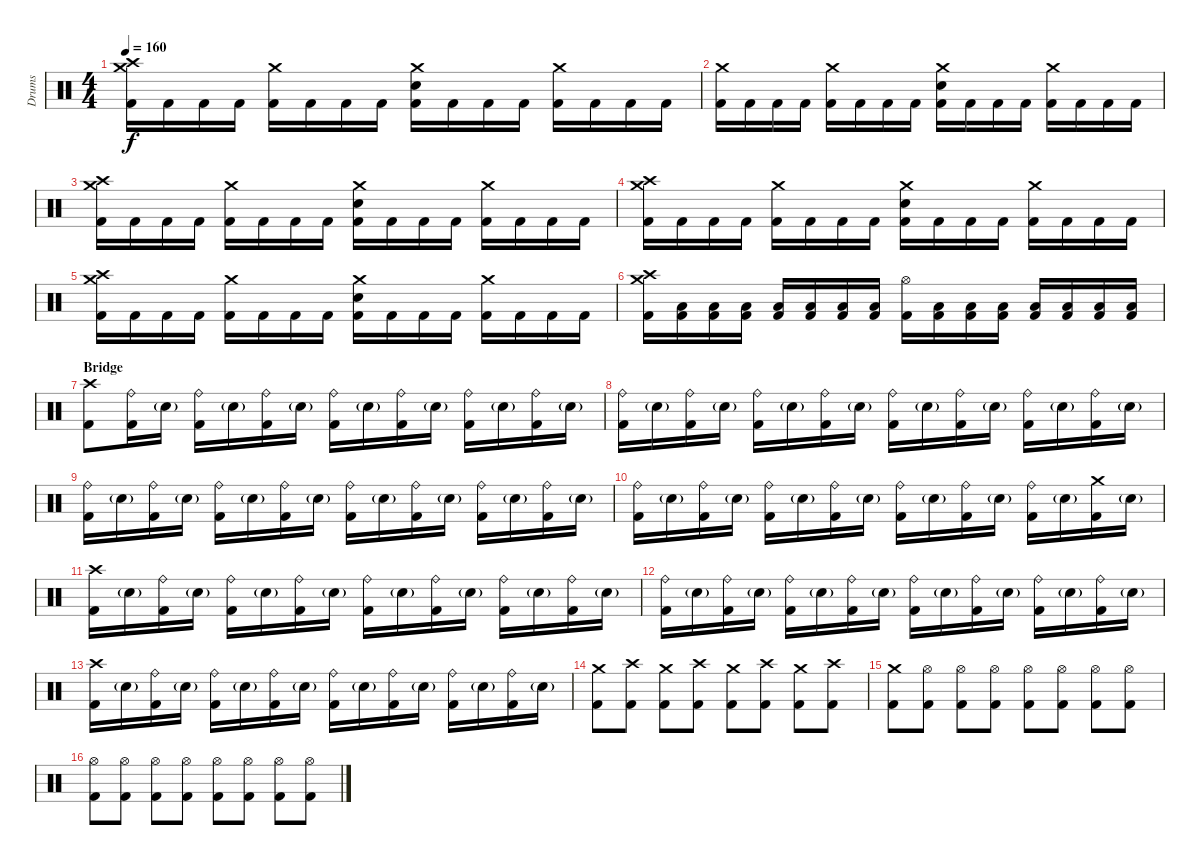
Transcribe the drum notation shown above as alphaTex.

\track ("Drums" "Drums") {instrument percussion}
\staff {score}
\articulation defaults
\ts (4 4)
\tempo 160
\clef neutral
\ks c
("Crash high (hit)" "Crash medium (hit)" "Kick (hit) 2").16{dy f} "Kick (hit) 2".16 "Kick (hit) 2".16 "Kick (hit) 2".16 ("Crash medium (hit)" "Kick (hit) 2").16 "Kick (hit) 2".16 "Kick (hit) 2".16 "Kick (hit) 2".16 ("Crash medium (hit)" "Snare (hit) 2" "Kick (hit) 2").16 "Kick (hit) 2".16 "Kick (hit) 2".16 "Kick (hit) 2".16 ("Crash medium (hit)" "Kick (hit) 2").16 "Kick (hit) 2".16 "Kick (hit) 2".16 "Kick (hit) 2".16 |
("Crash medium (hit)" "Kick (hit) 2").16 "Kick (hit) 2".16 "Kick (hit) 2".16 "Kick (hit) 2".16 ("Crash medium (hit)" "Kick (hit) 2").16 "Kick (hit) 2".16 "Kick (hit) 2".16 "Kick (hit) 2".16 ("Crash medium (hit)" "Snare (hit) 2" "Kick (hit) 2").16 "Kick (hit) 2".16 "Kick (hit) 2".16 "Kick (hit) 2".16 ("Crash medium (hit)" "Kick (hit) 2").16 "Kick (hit) 2".16 "Kick (hit) 2".16 "Kick (hit) 2".16 |
("Crash high (hit)" "Crash medium (hit)" "Kick (hit) 2").16 "Kick (hit) 2".16 "Kick (hit) 2".16 "Kick (hit) 2".16 ("Crash medium (hit)" "Kick (hit) 2").16 "Kick (hit) 2".16 "Kick (hit) 2".16 "Kick (hit) 2".16 ("Crash medium (hit)" "Snare (hit) 2" "Kick (hit) 2").16 "Kick (hit) 2".16 "Kick (hit) 2".16 "Kick (hit) 2".16 ("Crash medium (hit)" "Kick (hit) 2").16 "Kick (hit) 2".16 "Kick (hit) 2".16 "Kick (hit) 2".16 |
("Crash high (hit)" "Crash medium (hit)" "Kick (hit) 2").16 "Kick (hit) 2".16 "Kick (hit) 2".16 "Kick (hit) 2".16 ("Crash medium (hit)" "Kick (hit) 2").16 "Kick (hit) 2".16 "Kick (hit) 2".16 "Kick (hit) 2".16 ("Crash medium (hit)" "Snare (hit) 2" "Kick (hit) 2").16 "Kick (hit) 2".16 "Kick (hit) 2".16 "Kick (hit) 2".16 ("Crash medium (hit)" "Kick (hit) 2").16 "Kick (hit) 2".16 "Kick (hit) 2".16 "Kick (hit) 2".16 |
("Crash high (hit)" "Crash medium (hit)" "Kick (hit) 2").16 "Kick (hit) 2".16 "Kick (hit) 2".16 "Kick (hit) 2".16 ("Crash medium (hit)" "Kick (hit) 2").16 "Kick (hit) 2".16 "Kick (hit) 2".16 "Kick (hit) 2".16 ("Crash medium (hit)" "Snare (hit) 2" "Kick (hit) 2").16 "Kick (hit) 2".16 "Kick (hit) 2".16 "Kick (hit) 2".16 ("Crash medium (hit)" "Kick (hit) 2").16 "Kick (hit) 2".16 "Kick (hit) 2".16 "Kick (hit) 2".16 |
("Crash high (hit)" "Crash medium (hit)" "Kick (hit) 2").16 ("Low Tom (hit)" "Kick (hit) 2").16 ("Low Tom (hit)" "Kick (hit) 2").16 ("Low Tom (hit)" "Kick (hit) 2").16 ("Low Tom (hit)" "Kick (hit) 2").16 ("Low Tom (hit)" "Kick (hit) 2").16 ("Low Tom (hit)" "Kick (hit) 2").16 ("Low Tom (hit)" "Kick (hit) 2").16 ("Hi-Hat (open)" "Kick (hit) 2").16 ("Low Tom (hit)" "Kick (hit) 2").16 ("Low Tom (hit)" "Kick (hit) 2").16 ("Low Tom (hit)" "Kick (hit) 2").16 ("Low Tom (hit)" "Kick (hit) 2").16 ("Low Tom (hit)" "Kick (hit) 2").16 ("Low Tom (hit)" "Kick (hit) 2").16 ("Low Tom (hit)" "Kick (hit) 2").16 |
\section ("" "Bridge")
("Crash high (hit)" "Kick (hit) 2").8 ("Ride (bell)" "Kick (hit) 2").16 "Snare (hit) 2"{g}.16 ("Ride (bell)" "Kick (hit) 2").16 "Snare (hit) 2"{g}.16 ("Ride (bell)" "Kick (hit) 2").16 "Snare (hit) 2"{g}.16 ("Ride (bell)" "Kick (hit) 2").16 "Snare (hit) 2"{g}.16 ("Ride (bell)" "Kick (hit) 2").16 "Snare (hit) 2"{g}.16 ("Ride (bell)" "Kick (hit) 2").16 "Snare (hit) 2"{g}.16 ("Ride (bell)" "Kick (hit) 2").16 "Snare (hit) 2"{g}.16 |
("Ride (bell)" "Kick (hit) 2").16 "Snare (hit) 2"{g}.16 ("Ride (bell)" "Kick (hit) 2").16 "Snare (hit) 2"{g}.16 ("Ride (bell)" "Kick (hit) 2").16 "Snare (hit) 2"{g}.16 ("Ride (bell)" "Kick (hit) 2").16 "Snare (hit) 2"{g}.16 ("Ride (bell)" "Kick (hit) 2").16 "Snare (hit) 2"{g}.16 ("Ride (bell)" "Kick (hit) 2").16 "Snare (hit) 2"{g}.16 ("Ride (bell)" "Kick (hit) 2").16 "Snare (hit) 2"{g}.16 ("Ride (bell)" "Kick (hit) 2").16 "Snare (hit) 2"{g}.16 |
("Ride (bell)" "Kick (hit) 2").16 "Snare (hit) 2"{g}.16 ("Ride (bell)" "Kick (hit) 2").16 "Snare (hit) 2"{g}.16 ("Ride (bell)" "Kick (hit) 2").16 "Snare (hit) 2"{g}.16 ("Ride (bell)" "Kick (hit) 2").16 "Snare (hit) 2"{g}.16 ("Ride (bell)" "Kick (hit) 2").16 "Snare (hit) 2"{g}.16 ("Ride (bell)" "Kick (hit) 2").16 "Snare (hit) 2"{g}.16 ("Ride (bell)" "Kick (hit) 2").16 "Snare (hit) 2"{g}.16 ("Ride (bell)" "Kick (hit) 2").16 "Snare (hit) 2"{g}.16 |
("Ride (bell)" "Kick (hit) 2").16 "Snare (hit) 2"{g}.16 ("Ride (bell)" "Kick (hit) 2").16 "Snare (hit) 2"{g}.16 ("Ride (bell)" "Kick (hit) 2").16 "Snare (hit) 2"{g}.16 ("Ride (bell)" "Kick (hit) 2").16 "Snare (hit) 2"{g}.16 ("Ride (bell)" "Kick (hit) 2").16 "Snare (hit) 2"{g}.16 ("Ride (bell)" "Kick (hit) 2").16 "Snare (hit) 2"{g}.16 ("Ride (bell)" "Kick (hit) 2").16 "Snare (hit) 2"{g}.16 ("Crash medium (hit)" "Kick (hit) 2").16 "Snare (hit) 2"{g}.16 |
("Crash high (hit)" "Kick (hit) 2").16 "Snare (hit) 2"{g}.16 ("Ride (bell)" "Kick (hit) 2").16 "Snare (hit) 2"{g}.16 ("Ride (bell)" "Kick (hit) 2").16 "Snare (hit) 2"{g}.16 ("Ride (bell)" "Kick (hit) 2").16 "Snare (hit) 2"{g}.16 ("Ride (bell)" "Kick (hit) 2").16 "Snare (hit) 2"{g}.16 ("Ride (bell)" "Kick (hit) 2").16 "Snare (hit) 2"{g}.16 ("Ride (bell)" "Kick (hit) 2").16 "Snare (hit) 2"{g}.16 ("Ride (bell)" "Kick (hit) 2").16 "Snare (hit) 2"{g}.16 |
("Ride (bell)" "Kick (hit) 2").16 "Snare (hit) 2"{g}.16 ("Ride (bell)" "Kick (hit) 2").16 "Snare (hit) 2"{g}.16 ("Ride (bell)" "Kick (hit) 2").16 "Snare (hit) 2"{g}.16 ("Ride (bell)" "Kick (hit) 2").16 "Snare (hit) 2"{g}.16 ("Ride (bell)" "Kick (hit) 2").16 "Snare (hit) 2"{g}.16 ("Ride (bell)" "Kick (hit) 2").16 "Snare (hit) 2"{g}.16 ("Ride (bell)" "Kick (hit) 2").16 "Snare (hit) 2"{g}.16 ("Ride (bell)" "Kick (hit) 2").16 "Snare (hit) 2"{g}.16 |
("Crash high (hit)" "Kick (hit) 2").16 "Snare (hit) 2"{g}.16 ("Ride (bell)" "Kick (hit) 2").16 "Snare (hit) 2"{g}.16 ("Ride (bell)" "Kick (hit) 2").16 "Snare (hit) 2"{g}.16 ("Ride (bell)" "Kick (hit) 2").16 "Snare (hit) 2"{g}.16 ("Ride (bell)" "Kick (hit) 2").16 "Snare (hit) 2"{g}.16 ("Ride (bell)" "Kick (hit) 2").16 "Snare (hit) 2"{g}.16 ("Ride (bell)" "Kick (hit) 2").16 "Snare (hit) 2"{g}.16 ("Ride (bell)" "Kick (hit) 2").16 "Snare (hit) 2"{g}.16 |
("Crash medium (hit)" "Kick (hit) 2").8 ("Crash high (hit)" "Kick (hit) 2").8 ("Crash medium (hit)" "Kick (hit) 2").8 ("Crash high (hit)" "Kick (hit) 2").8 ("Crash medium (hit)" "Kick (hit) 2").8 ("Crash high (hit)" "Kick (hit) 2").8 ("Crash medium (hit)" "Kick (hit) 2").8 ("Crash high (hit)" "Kick (hit) 2").8 |
("Crash medium (hit)" "Kick (hit) 2").8 ("Hi-Hat (open)" "Kick (hit) 2").8 ("Hi-Hat (open)" "Kick (hit) 2").8 ("Hi-Hat (open)" "Kick (hit) 2").8 ("Hi-Hat (open)" "Kick (hit) 2").8 ("Hi-Hat (open)" "Kick (hit) 2").8 ("Hi-Hat (open)" "Kick (hit) 2").8 ("Hi-Hat (open)" "Kick (hit) 2").8 |
("Hi-Hat (open)" "Kick (hit) 2").8 ("Hi-Hat (open)" "Kick (hit) 2").8 ("Hi-Hat (open)" "Kick (hit) 2").8 ("Hi-Hat (open)" "Kick (hit) 2").8 ("Hi-Hat (open)" "Kick (hit) 2").8 ("Hi-Hat (open)" "Kick (hit) 2").8 ("Hi-Hat (open)" "Kick (hit) 2").8 ("Hi-Hat (open)" "Kick (hit) 2").8
